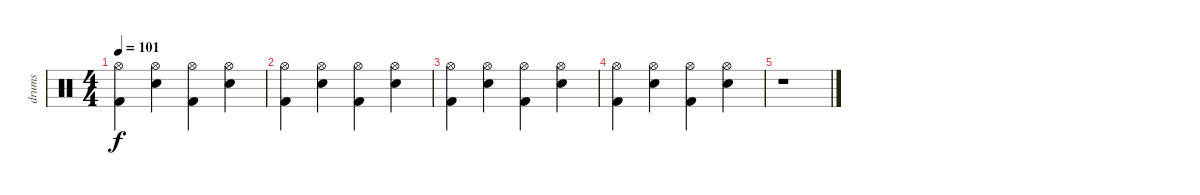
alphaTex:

\track ("drums" "drums") {instrument percussion}
\staff {score}
\articulation defaults
\ts (4 4)
\tempo 101
\clef neutral
\ks c
("Hi-Hat (open)" "Kick (hit) 2").4{dy f volume 9} ("Hi-Hat (open)" "Electric Snare (hit)").4 ("Hi-Hat (open)" "Kick (hit) 2").4 ("Hi-Hat (open)" "Electric Snare (hit)").4 |
("Hi-Hat (open)" "Kick (hit) 2").4 ("Hi-Hat (open)" "Electric Snare (hit)").4 ("Hi-Hat (open)" "Kick (hit) 2").4 ("Hi-Hat (open)" "Electric Snare (hit)").4 |
("Hi-Hat (open)" "Kick (hit) 2").4{volume 0} ("Hi-Hat (open)" "Electric Snare (hit)").4 ("Hi-Hat (open)" "Kick (hit) 2").4 ("Hi-Hat (open)" "Electric Snare (hit)").4 |
("Hi-Hat (open)" "Kick (hit) 2").4 ("Hi-Hat (open)" "Electric Snare (hit)").4 ("Hi-Hat (open)" "Kick (hit) 2").4 ("Hi-Hat (open)" "Electric Snare (hit)").4 |
r.1
